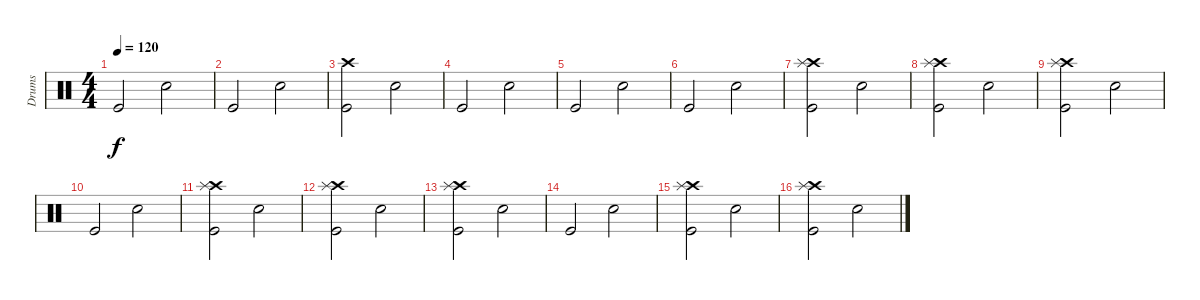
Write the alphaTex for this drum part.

\track ("Drums" "Drums") {instrument percussion}
\staff {score}
\articulation defaults
\ts (4 4)
\tempo 120
\clef neutral
\ks c "Kick (hit)".2{dy f} "Snare (hit) 2".2
|
"Kick (hit)".2 "Snare (hit) 2".2 |
("Crash high (hit)" "Kick (hit)").2 "Snare (hit) 2".2 |
"Kick (hit)".2 "Snare (hit) 2".2 |
"Kick (hit)".2 "Snare (hit) 2".2 |
"Kick (hit)".2 "Snare (hit) 2".2 |
("Crash high (hit)" "Splash (hit)" "Kick (hit)").2 "Snare (hit) 2".2 |
("Crash high (hit)" "Splash (hit)" "Kick (hit)").2 "Snare (hit) 2".2 |
("Crash high (hit)" "Splash (hit)" "Kick (hit)").2 "Snare (hit) 2".2 |
"Kick (hit)".2 "Snare (hit) 2".2 |
("Crash high (hit)" "Splash (hit)" "Kick (hit)").2 "Snare (hit) 2".2 |
("Crash high (hit)" "Splash (hit)" "Kick (hit)").2 "Snare (hit) 2".2 |
("Crash high (hit)" "Splash (hit)" "Kick (hit)").2 "Snare (hit) 2".2 |
"Kick (hit)".2 "Snare (hit) 2".2 |
("Crash high (hit)" "Splash (hit)" "Kick (hit)").2 "Snare (hit) 2".2 |
("Crash high (hit)" "Splash (hit)" "Kick (hit)").2 "Snare (hit) 2".2
